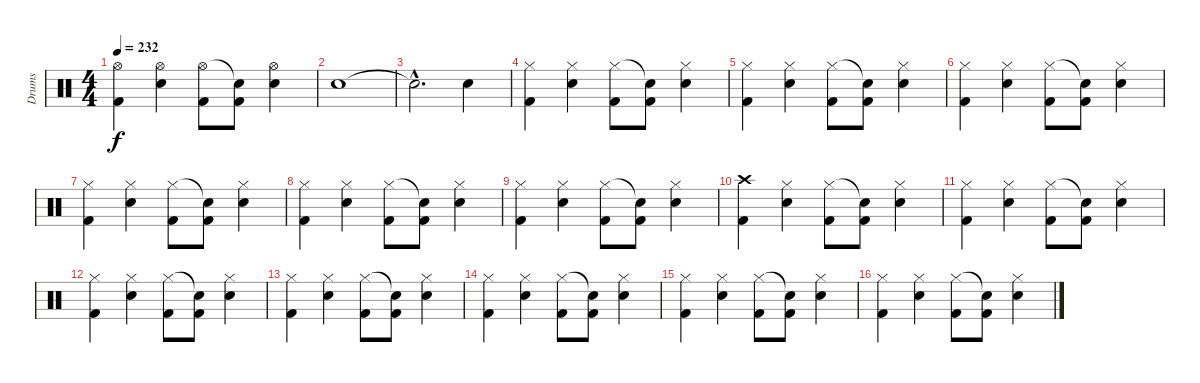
\track ("Drums" "Drums") {instrument percussion}
\staff {score}
\articulation defaults
\ts (4 4)
\tempo 232
\clef neutral
\ks c
("Hi-Hat (open)" "Kick (hit) 2").4{dy f} ("Hi-Hat (open)" "Snare (hit) 2").4 ("Hi-Hat (open)" "Kick (hit) 2").8 ("Snare (hit)"{t} "Kick (hit) 2").8 ("Hi-Hat (open)" "Snare (hit) 2").4 |
"Snare (hit) 2".1 |
"Snare (hit)"{hac t}.2{d} "Snare (hit) 2".4 |
("Hi-Hat (closed)" "Kick (hit) 2").4 ("Hi-Hat (closed)" "Snare (hit) 2").4 ("Hi-Hat (closed)" "Kick (hit) 2").8 ("Snare (hit)"{t} "Kick (hit) 2").8 ("Hi-Hat (closed)" "Snare (hit) 2").4 |
("Hi-Hat (closed)" "Kick (hit) 2").4 ("Hi-Hat (closed)" "Snare (hit) 2").4 ("Hi-Hat (closed)" "Kick (hit) 2").8 ("Snare (hit)"{t} "Kick (hit) 2").8 ("Hi-Hat (closed)" "Snare (hit) 2").4 |
("Hi-Hat (closed)" "Kick (hit) 2").4 ("Hi-Hat (closed)" "Snare (hit) 2").4 ("Hi-Hat (closed)" "Kick (hit) 2").8 ("Snare (hit)"{t} "Kick (hit) 2").8 ("Hi-Hat (closed)" "Snare (hit) 2").4 |
("Hi-Hat (closed)" "Kick (hit) 2").4 ("Hi-Hat (closed)" "Snare (hit) 2").4 ("Hi-Hat (closed)" "Kick (hit) 2").8 ("Snare (hit)"{t} "Kick (hit) 2").8 ("Hi-Hat (closed)" "Snare (hit) 2").4 |
("Hi-Hat (closed)" "Kick (hit) 2").4 ("Hi-Hat (closed)" "Snare (hit) 2").4 ("Hi-Hat (closed)" "Kick (hit) 2").8 ("Snare (hit)"{t} "Kick (hit) 2").8 ("Hi-Hat (closed)" "Snare (hit) 2").4 |
("Hi-Hat (closed)" "Kick (hit) 2").4 ("Hi-Hat (closed)" "Snare (hit) 2").4 ("Hi-Hat (closed)" "Kick (hit) 2").8 ("Snare (hit)"{t} "Kick (hit) 2").8 ("Hi-Hat (closed)" "Snare (hit) 2").4 |
("Crash high (hit)" "Kick (hit) 2").4 ("Hi-Hat (closed)" "Snare (hit) 2").4 ("Hi-Hat (closed)" "Kick (hit) 2").8 ("Snare (hit)"{t} "Kick (hit) 2").8 ("Hi-Hat (closed)" "Snare (hit) 2").4 |
("Hi-Hat (closed)" "Kick (hit) 2").4 ("Hi-Hat (closed)" "Snare (hit) 2").4 ("Hi-Hat (closed)" "Kick (hit) 2").8 ("Snare (hit)"{t} "Kick (hit) 2").8 ("Hi-Hat (closed)" "Snare (hit) 2").4 |
("Hi-Hat (closed)" "Kick (hit) 2").4 ("Hi-Hat (closed)" "Snare (hit) 2").4 ("Hi-Hat (closed)" "Kick (hit) 2").8 ("Snare (hit)"{t} "Kick (hit) 2").8 ("Hi-Hat (closed)" "Snare (hit) 2").4 |
("Hi-Hat (closed)" "Kick (hit) 2").4 ("Hi-Hat (closed)" "Snare (hit) 2").4 ("Hi-Hat (closed)" "Kick (hit) 2").8 ("Snare (hit)"{t} "Kick (hit) 2").8 ("Hi-Hat (closed)" "Snare (hit) 2").4 |
("Hi-Hat (closed)" "Kick (hit) 2").4 ("Hi-Hat (closed)" "Snare (hit) 2").4 ("Hi-Hat (closed)" "Kick (hit) 2").8 ("Snare (hit)"{t} "Kick (hit) 2").8 ("Hi-Hat (closed)" "Snare (hit) 2").4 |
("Hi-Hat (closed)" "Kick (hit) 2").4 ("Hi-Hat (closed)" "Snare (hit) 2").4 ("Hi-Hat (closed)" "Kick (hit) 2").8 ("Snare (hit)"{t} "Kick (hit) 2").8 ("Hi-Hat (closed)" "Snare (hit) 2").4 |
("Hi-Hat (closed)" "Kick (hit) 2").4 ("Hi-Hat (closed)" "Snare (hit) 2").4 ("Hi-Hat (closed)" "Kick (hit) 2").8 ("Snare (hit)"{t} "Kick (hit) 2").8 ("Hi-Hat (closed)" "Snare (hit) 2").4
